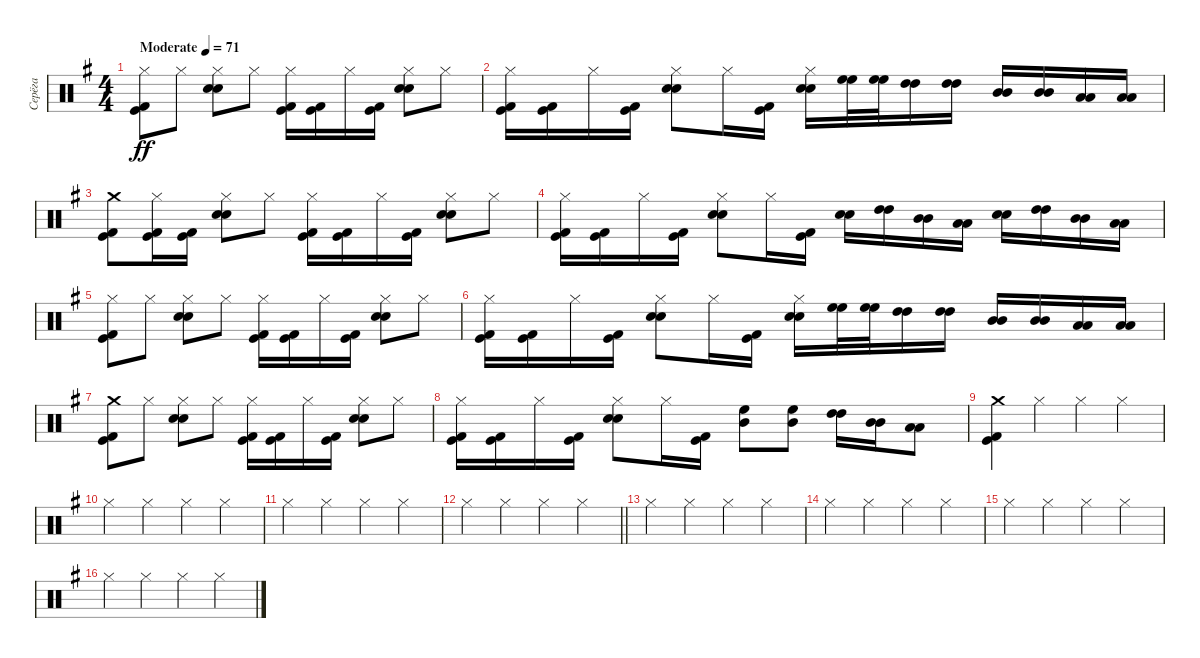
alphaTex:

\track ("Серёга" "Серёга") {instrument percussion}
\staff {score}
\articulation defaults
\ts (4 4)
\tempo (71 "Moderate")
\clef neutral
\ks eminor
("Hi-Hat (closed)" "Kick (hit)" "Kick (hit) 2").8{dy ff} "Hi-Hat (closed)".8 ("Hi-Hat (closed)" "Snare (hit) 2" "Electric Snare (hit)").8 "Hi-Hat (closed)".8 ("Hi-Hat (closed)" "Kick (hit)" "Kick (hit) 2").16 ("Kick (hit)" "Kick (hit) 2").16 "Hi-Hat (closed)".16 ("Kick (hit)" "Kick (hit) 2").16 ("Hi-Hat (closed)" "Snare (hit) 2" "Electric Snare (hit)").8 "Hi-Hat (closed)".8 |
("Hi-Hat (closed)" "Kick (hit)" "Kick (hit) 2").16 ("Kick (hit)" "Kick (hit) 2").16 "Hi-Hat (closed)".16 ("Kick (hit)" "Kick (hit) 2").16 ("Hi-Hat (closed)" "Snare (hit) 2" "Electric Snare (hit)").8 "Hi-Hat (closed)".16 ("Kick (hit)" "Kick (hit) 2").16 ("Hi-Hat (closed)" "Snare (hit) 2" "Electric Snare (hit)").16 ("High Floor Tom (hit)" "High Floor Tom (hit)").32 ("High Floor Tom (hit)" "High Floor Tom (hit)").32 ("High Tom (hit)" "High Tom (hit)").16 ("High Tom (hit)" "High Tom (hit)").16 ("Mid Tom (hit)" "Mid Tom (hit)").16 ("Mid Tom (hit)" "Mid Tom (hit)").16 ("Low Tom (hit)" "Low Tom (hit)").16 ("Low Tom (hit)" "Low Tom (hit)").16 |
("Crash medium (hit)" "Kick (hit)" "Kick (hit) 2").8 ("Hi-Hat (closed)" "Kick (hit)" "Kick (hit) 2").16 ("Kick (hit)" "Kick (hit) 2").16 ("Hi-Hat (closed)" "Snare (hit) 2" "Electric Snare (hit)").8 "Hi-Hat (closed)".8 ("Hi-Hat (closed)" "Kick (hit)" "Kick (hit) 2").16 ("Kick (hit)" "Kick (hit) 2").16 "Hi-Hat (closed)".16 ("Kick (hit)" "Kick (hit) 2").16 ("Hi-Hat (closed)" "Snare (hit) 2" "Electric Snare (hit)").8 "Hi-Hat (closed)".8 |
("Hi-Hat (closed)" "Kick (hit)" "Kick (hit) 2").16 ("Kick (hit)" "Kick (hit) 2").16 "Hi-Hat (closed)".16 ("Kick (hit)" "Kick (hit) 2").16 ("Hi-Hat (closed)" "Snare (hit) 2" "Electric Snare (hit)").8 "Hi-Hat (closed)".16 ("Kick (hit)" "Kick (hit) 2").16 ("Electric Snare (hit)" "Snare (hit) 2").16 ("High Tom (hit)" "High Tom (hit)").16 ("Mid Tom (hit)" "Mid Tom (hit)").16 ("Low Tom (hit)" "Low Tom (hit)").16 ("Electric Snare (hit)" "Snare (hit) 2").16 ("High Tom (hit)" "High Tom (hit)").16 ("Mid Tom (hit)" "Mid Tom (hit)").16 ("Low Tom (hit)" "Low Tom (hit)").16 |
("Hi-Hat (closed)" "Kick (hit)" "Kick (hit) 2").8 "Hi-Hat (closed)".8 ("Hi-Hat (closed)" "Snare (hit) 2" "Electric Snare (hit)").8 "Hi-Hat (closed)".8 ("Hi-Hat (closed)" "Kick (hit)" "Kick (hit) 2").16 ("Kick (hit)" "Kick (hit) 2").16 "Hi-Hat (closed)".16 ("Kick (hit)" "Kick (hit) 2").16 ("Hi-Hat (closed)" "Snare (hit) 2" "Electric Snare (hit)").8 "Hi-Hat (closed)".8 |
("Hi-Hat (closed)" "Kick (hit)" "Kick (hit) 2").16 ("Kick (hit)" "Kick (hit) 2").16 "Hi-Hat (closed)".16 ("Kick (hit)" "Kick (hit) 2").16 ("Hi-Hat (closed)" "Snare (hit) 2" "Electric Snare (hit)").8 "Hi-Hat (closed)".16 ("Kick (hit)" "Kick (hit) 2").16 ("Hi-Hat (closed)" "Snare (hit) 2" "Electric Snare (hit)").16 ("High Floor Tom (hit)" "High Floor Tom (hit)").32 ("High Floor Tom (hit)" "High Floor Tom (hit)").32 ("High Tom (hit)" "High Tom (hit)").16 ("High Tom (hit)" "High Tom (hit)").16 ("Mid Tom (hit)" "Mid Tom (hit)").16 ("Mid Tom (hit)" "Mid Tom (hit)").16 ("Low Tom (hit)" "Low Tom (hit)").16 ("Low Tom (hit)" "Low Tom (hit)").16 |
("Crash medium (hit)" "Kick (hit)" "Kick (hit) 2").8 "Hi-Hat (closed)".8 ("Hi-Hat (closed)" "Snare (hit) 2" "Electric Snare (hit)").8 "Hi-Hat (closed)".8 ("Hi-Hat (closed)" "Kick (hit)" "Kick (hit) 2").16 ("Kick (hit)" "Kick (hit) 2").16 "Hi-Hat (closed)".16 ("Kick (hit)" "Kick (hit) 2").16 ("Hi-Hat (closed)" "Snare (hit) 2" "Electric Snare (hit)").8 "Hi-Hat (closed)".8 |
("Hi-Hat (closed)" "Kick (hit)" "Kick (hit) 2").16 ("Kick (hit)" "Kick (hit) 2").16 "Hi-Hat (closed)".16 ("Kick (hit)" "Kick (hit) 2").16 ("Hi-Hat (closed)" "Snare (hit) 2" "Electric Snare (hit)").8 "Hi-Hat (closed)".16 ("Kick (hit)" "Kick (hit) 2").16 ("High Floor Tom (hit)" "Mid Tom (hit)").8 ("High Floor Tom (hit)" "Mid Tom (hit)").8 ("High Tom (hit)" "High Tom (hit)").16 ("Mid Tom (hit)" "Mid Tom (hit)").16 ("Low Tom (hit)" "Low Tom (hit)").8 |
("Crash medium (hit)" "Kick (hit)" "Kick (hit) 2").4 "Hi-Hat (closed)".4 "Hi-Hat (closed)".4 "Hi-Hat (closed)".4 |
"Hi-Hat (closed)".4 "Hi-Hat (closed)".4 "Hi-Hat (closed)".4 "Hi-Hat (closed)".4 |
"Hi-Hat (closed)".4 "Hi-Hat (closed)".4 "Hi-Hat (closed)".4 "Hi-Hat (closed)".4 |
\barLineRight lightlight "Hi-Hat (closed)".4 "Hi-Hat (closed)".4 "Hi-Hat (closed)".4 "Hi-Hat (closed)".4
|
"Hi-Hat (closed)".4 "Hi-Hat (closed)".4 "Hi-Hat (closed)".4 "Hi-Hat (closed)".4 |
"Hi-Hat (closed)".4 "Hi-Hat (closed)".4 "Hi-Hat (closed)".4 "Hi-Hat (closed)".4 |
"Hi-Hat (closed)".4 "Hi-Hat (closed)".4 "Hi-Hat (closed)".4 "Hi-Hat (closed)".4 |
"Hi-Hat (closed)".4 "Hi-Hat (closed)".4 "Hi-Hat (closed)".4 "Hi-Hat (closed)".4
